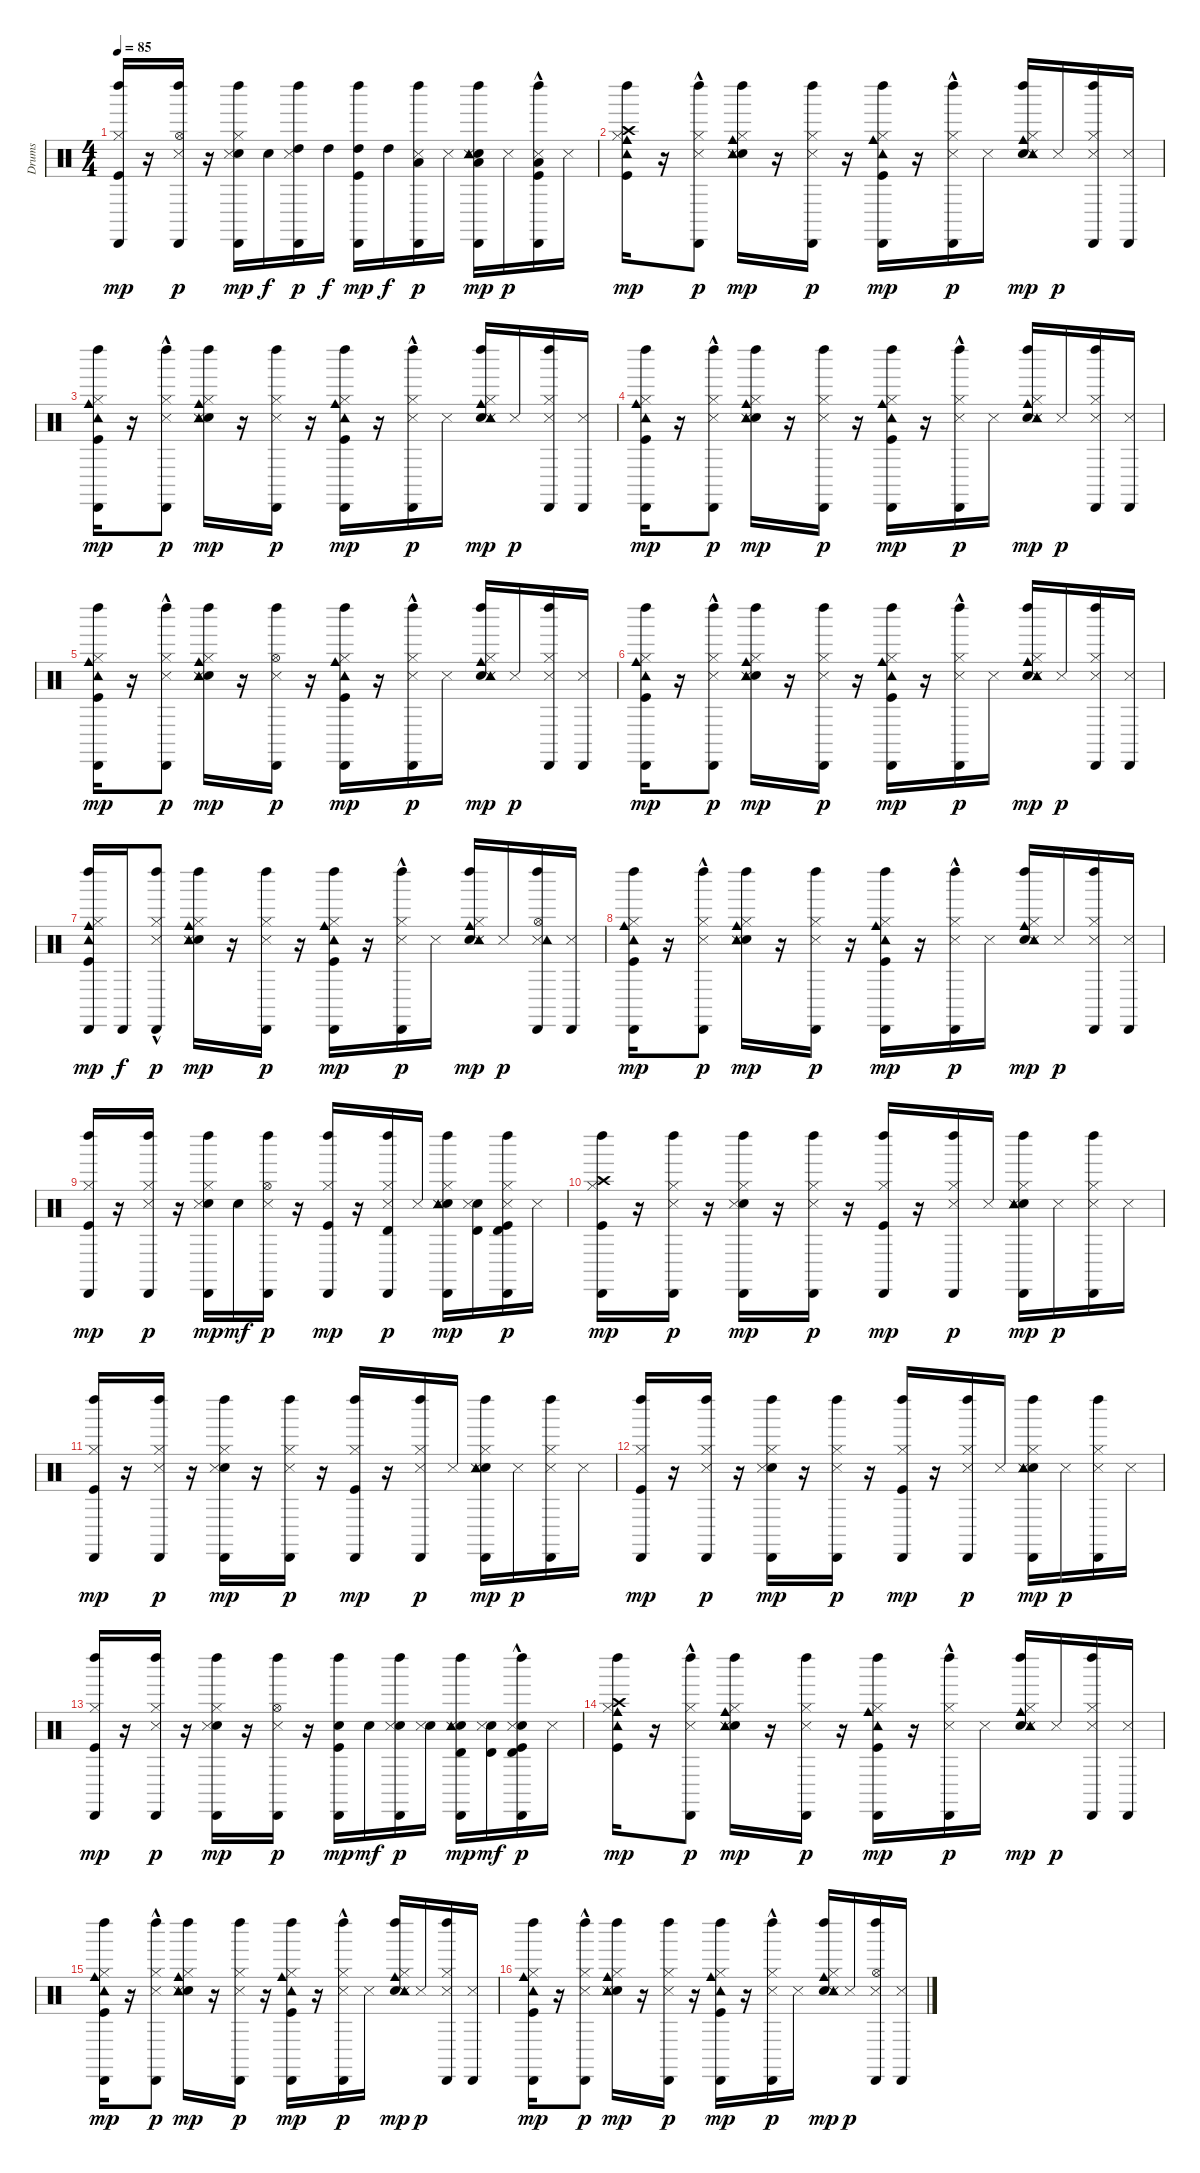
\track ("Drums" "Drums") {instrument percussion}
\staff {score}
\articulation defaults
\ts (4 4)
\tempo 85
\clef neutral
\ks c
("Kick (hit)" "Hi-Hat (closed)" "Left Maraca (hit)" "Cabasa (hit)").16{dy mp} r.16 ("Hi-Hat (open)" "Snare (side stick) 3" "Left Maraca (hit)" "Cabasa (hit)").16{dy p} r.16 ("Snare (hit) 2" "Hi-Hat (closed)" "Snare (side stick) 3" "Left Maraca (hit)" "Cabasa (hit)").16{dy mp} "Snare (hit) 2".16{dy f} ("Snare (side stick) 3" "High Tom (hit)" "Left Maraca (hit)" "Cabasa (hit)").16{dy p} "High Tom (hit)".16{dy f} ("Kick (hit)" "High Tom (hit)" "Left Maraca (hit)" "Cabasa (hit)").16{dy mp} "High Tom (hit)".16{dy f} ("Snare (side stick) 3" "Low Tom (hit)" "Left Maraca (hit)" "Cabasa (hit)").16{dy p} "Snare (side stick) 3".16 ("Snare (hit) 2" "Snare (side stick) 3" "Low Tom (hit)" "Tambourine (hit)" "Left Maraca (hit)" "Cabasa (hit)").16{dy mp} "Snare (side stick) 3".16{dy p} ("Kick (hit)" "Snare (side stick) 3" "Low Floor Tom (hit)" "Left Maraca (hit)" "Cabasa (hit)"{hac}).16 "Snare (side stick) 3".16 |
("Kick (hit)" "Hi-Hat (closed)" "Cowbell medium (hit)" "Crash high (hit)" "Tambourine (hit)" "Left Maraca (hit)").16{dy mp} r.16 ("Hi-Hat (closed)" "Snare (side stick) 3" "Left Maraca (hit)" "Cabasa (hit)"{hac}).8{dy p} ("Snare (hit) 2" "Hi-Hat (closed)" "Snare (side stick) 3" "Cowbell medium (hit)" "Tambourine (hit)" "Left Maraca (hit)").16{dy mp} r.16 ("Hi-Hat (closed)" "Snare (side stick) 3" "Left Maraca (hit)" "Cabasa (hit)").16{dy p} r.16 ("Kick (hit)" "Hi-Hat (closed)" "Cowbell medium (hit)" "Tambourine (hit)" "Left Maraca (hit)" "Cabasa (hit)").16{dy mp} r.16 ("Hi-Hat (closed)" "Snare (side stick) 3" "Left Maraca (hit)" "Cabasa (hit)"{hac}).16{dy p} "Snare (side stick) 3".16 ("Snare (hit) 2" "Hi-Hat (closed)" "Snare (side stick) 3" "Cowbell medium (hit)" "Tambourine (hit)" "Left Maraca (hit)").16{dy mp} "Snare (side stick) 3".16{dy p} ("Hi-Hat (closed)" "Snare (side stick) 3" "Left Maraca (hit)" "Cabasa (hit)").16 ("Snare (side stick) 3" "Cabasa (hit)").16 |
("Kick (hit)" "Hi-Hat (closed)" "Cowbell medium (hit)" "Tambourine (hit)" "Left Maraca (hit)" "Cabasa (hit)").16{dy mp} r.16 ("Hi-Hat (closed)" "Snare (side stick) 3" "Left Maraca (hit)" "Cabasa (hit)"{hac}).8{dy p} ("Snare (hit) 2" "Hi-Hat (closed)" "Snare (side stick) 3" "Cowbell medium (hit)" "Tambourine (hit)" "Left Maraca (hit)").16{dy mp} r.16 ("Hi-Hat (closed)" "Snare (side stick) 3" "Left Maraca (hit)" "Cabasa (hit)").16{dy p} r.16 ("Kick (hit)" "Hi-Hat (closed)" "Cowbell medium (hit)" "Tambourine (hit)" "Left Maraca (hit)" "Cabasa (hit)").16{dy mp} r.16 ("Hi-Hat (closed)" "Snare (side stick) 3" "Left Maraca (hit)" "Cabasa (hit)"{hac}).16{dy p} "Snare (side stick) 3".16 ("Snare (hit) 2" "Hi-Hat (closed)" "Snare (side stick) 3" "Cowbell medium (hit)" "Tambourine (hit)" "Left Maraca (hit)").16{dy mp} "Snare (side stick) 3".16{dy p} ("Hi-Hat (closed)" "Snare (side stick) 3" "Left Maraca (hit)" "Cabasa (hit)").16 ("Snare (side stick) 3" "Cabasa (hit)").16 |
("Kick (hit)" "Hi-Hat (closed)" "Cowbell medium (hit)" "Tambourine (hit)" "Left Maraca (hit)" "Cabasa (hit)").16{dy mp} r.16 ("Hi-Hat (closed)" "Snare (side stick) 3" "Left Maraca (hit)" "Cabasa (hit)"{hac}).8{dy p} ("Snare (hit) 2" "Hi-Hat (closed)" "Snare (side stick) 3" "Cowbell medium (hit)" "Tambourine (hit)" "Left Maraca (hit)").16{dy mp} r.16 ("Hi-Hat (closed)" "Snare (side stick) 3" "Left Maraca (hit)" "Cabasa (hit)").16{dy p} r.16 ("Kick (hit)" "Hi-Hat (closed)" "Cowbell medium (hit)" "Tambourine (hit)" "Left Maraca (hit)" "Cabasa (hit)").16{dy mp} r.16 ("Hi-Hat (closed)" "Snare (side stick) 3" "Left Maraca (hit)" "Cabasa (hit)"{hac}).16{dy p} "Snare (side stick) 3".16 ("Snare (hit) 2" "Hi-Hat (closed)" "Snare (side stick) 3" "Cowbell medium (hit)" "Tambourine (hit)" "Left Maraca (hit)").16{dy mp} "Snare (side stick) 3".16{dy p} ("Hi-Hat (closed)" "Snare (side stick) 3" "Left Maraca (hit)" "Cabasa (hit)").16 ("Snare (side stick) 3" "Cabasa (hit)").16 |
("Kick (hit)" "Hi-Hat (closed)" "Cowbell medium (hit)" "Tambourine (hit)" "Left Maraca (hit)" "Cabasa (hit)").16{dy mp} r.16 ("Hi-Hat (closed)" "Snare (side stick) 3" "Left Maraca (hit)" "Cabasa (hit)"{hac}).8{dy p} ("Snare (hit) 2" "Hi-Hat (closed)" "Snare (side stick) 3" "Cowbell medium (hit)" "Tambourine (hit)" "Left Maraca (hit)").16{dy mp} r.16 ("Hi-Hat (open)" "Snare (side stick) 3" "Left Maraca (hit)" "Cabasa (hit)").16{dy p} r.16 ("Kick (hit)" "Hi-Hat (closed)" "Cowbell medium (hit)" "Tambourine (hit)" "Left Maraca (hit)" "Cabasa (hit)").16{dy mp} r.16 ("Hi-Hat (closed)" "Snare (side stick) 3" "Left Maraca (hit)" "Cabasa (hit)"{hac}).16{dy p} "Snare (side stick) 3".16 ("Snare (hit) 2" "Hi-Hat (closed)" "Snare (side stick) 3" "Cowbell medium (hit)" "Tambourine (hit)" "Left Maraca (hit)").16{dy mp} "Snare (side stick) 3".16{dy p} ("Hi-Hat (closed)" "Snare (side stick) 3" "Left Maraca (hit)" "Cabasa (hit)").16 ("Snare (side stick) 3" "Cabasa (hit)").16 |
("Kick (hit)" "Hi-Hat (closed)" "Cowbell medium (hit)" "Tambourine (hit)" "Left Maraca (hit)" "Cabasa (hit)").16{dy mp} r.16 ("Hi-Hat (closed)" "Snare (side stick) 3" "Left Maraca (hit)" "Cabasa (hit)"{hac}).8{dy p} ("Snare (hit) 2" "Hi-Hat (closed)" "Snare (side stick) 3" "Cowbell medium (hit)" "Tambourine (hit)" "Left Maraca (hit)").16{dy mp} r.16 ("Hi-Hat (closed)" "Snare (side stick) 3" "Left Maraca (hit)" "Cabasa (hit)").16{dy p} r.16 ("Kick (hit)" "Hi-Hat (closed)" "Cowbell medium (hit)" "Tambourine (hit)" "Left Maraca (hit)" "Cabasa (hit)").16{dy mp} r.16 ("Hi-Hat (closed)" "Snare (side stick) 3" "Left Maraca (hit)" "Cabasa (hit)"{hac}).16{dy p} "Snare (side stick) 3".16 ("Snare (hit) 2" "Hi-Hat (closed)" "Snare (side stick) 3" "Cowbell medium (hit)" "Tambourine (hit)" "Left Maraca (hit)").16{dy mp} "Snare (side stick) 3".16{dy p} ("Hi-Hat (closed)" "Snare (side stick) 3" "Left Maraca (hit)" "Cabasa (hit)").16 ("Snare (side stick) 3" "Cabasa (hit)").16 |
("Kick (hit)" "Hi-Hat (closed)" "Cowbell medium (hit)" "Tambourine (hit)" "Left Maraca (hit)" "Cabasa (hit)").16{dy mp} "Cabasa (hit)".16{dy f} ("Hi-Hat (closed)" "Snare (side stick) 3" "Left Maraca (hit)" "Cabasa (hit)"{hac}).8{dy p} ("Snare (hit) 2" "Hi-Hat (closed)" "Snare (side stick) 3" "Cowbell medium (hit)" "Tambourine (hit)" "Left Maraca (hit)").16{dy mp} r.16 ("Hi-Hat (closed)" "Snare (side stick) 3" "Left Maraca (hit)" "Cabasa (hit)").16{dy p} r.16 ("Kick (hit)" "Hi-Hat (closed)" "Cowbell medium (hit)" "Tambourine (hit)" "Left Maraca (hit)" "Cabasa (hit)").16{dy mp} r.16 ("Hi-Hat (closed)" "Snare (side stick) 3" "Left Maraca (hit)" "Cabasa (hit)"{hac}).16{dy p} "Snare (side stick) 3".16 ("Snare (hit) 2" "Hi-Hat (closed)" "Snare (side stick) 3" "Cowbell medium (hit)" "Tambourine (hit)" "Left Maraca (hit)").16{dy mp} "Snare (side stick) 3".16{dy p} ("Hi-Hat (open)" "Snare (side stick) 3" "Tambourine (hit)" "Left Maraca (hit)" "Cabasa (hit)").16 ("Snare (side stick) 3" "Cabasa (hit)").16 |
("Kick (hit)" "Hi-Hat (closed)" "Cowbell medium (hit)" "Tambourine (hit)" "Left Maraca (hit)" "Cabasa (hit)").16{dy mp} r.16 ("Hi-Hat (closed)" "Snare (side stick) 3" "Left Maraca (hit)" "Cabasa (hit)"{hac}).8{dy p} ("Snare (hit) 2" "Hi-Hat (closed)" "Snare (side stick) 3" "Cowbell medium (hit)" "Tambourine (hit)" "Left Maraca (hit)").16{dy mp} r.16 ("Hi-Hat (closed)" "Snare (side stick) 3" "Left Maraca (hit)" "Cabasa (hit)").16{dy p} r.16 ("Kick (hit)" "Hi-Hat (closed)" "Cowbell medium (hit)" "Tambourine (hit)" "Left Maraca (hit)" "Cabasa (hit)").16{dy mp} r.16 ("Hi-Hat (closed)" "Snare (side stick) 3" "Left Maraca (hit)" "Cabasa (hit)"{hac}).16{dy p} "Snare (side stick) 3".16 ("Snare (hit) 2" "Hi-Hat (closed)" "Snare (side stick) 3" "Cowbell medium (hit)" "Tambourine (hit)" "Left Maraca (hit)").16{dy mp} "Snare (side stick) 3".16{dy p} ("Hi-Hat (closed)" "Snare (side stick) 3" "Left Maraca (hit)" "Cabasa (hit)").16 ("Snare (side stick) 3" "Cabasa (hit)").16 |
("Kick (hit)" "Hi-Hat (closed)" "Left Maraca (hit)" "Cabasa (hit)").16{dy mp} r.16 ("Hi-Hat (closed)" "Snare (side stick) 3" "Left Maraca (hit)" "Cabasa (hit)").16{dy p} r.16 ("Snare (hit) 2" "Hi-Hat (closed)" "Snare (side stick) 3" "Left Maraca (hit)" "Cabasa (hit)").16{dy mp} "Snare (hit) 2".16{dy mf} ("Hi-Hat (open)" "Snare (side stick) 3" "Left Maraca (hit)" "Cabasa (hit)").16{dy p} r.16 ("Kick (hit)" "Hi-Hat (closed)" "Left Maraca (hit)" "Cabasa (hit)").16{dy mp} r.16 ("Hi-Hat (closed)" "Snare (side stick) 3" "Timbale high (hit)" "Left Maraca (hit)" "Cabasa (hit)").16{dy p} "Snare (side stick) 3".16 ("Snare (hit) 2" "Hi-Hat (closed)" "Snare (side stick) 3" "Tambourine (hit)" "Left Maraca (hit)" "Cabasa (hit)").16{dy mp} ("Snare (hit) 2" "Snare (side stick) 3" "Timbale high (hit)").16 ("Kick (hit)" "Hi-Hat (closed)" "Snare (side stick) 3" "Timbale high (hit)" "Left Maraca (hit)" "Cabasa (hit)").16{dy p} "Snare (side stick) 3".16 |
("Kick (hit)" "Hi-Hat (closed)" "Crash high (hit)" "Left Maraca (hit)" "Cabasa (hit)").16{dy mp} r.16 ("Hi-Hat (closed)" "Snare (side stick) 3" "Left Maraca (hit)" "Cabasa (hit)").16{dy p} r.16 ("Snare (hit) 2" "Hi-Hat (closed)" "Snare (side stick) 3" "Left Maraca (hit)" "Cabasa (hit)").16{dy mp} r.16 ("Hi-Hat (closed)" "Snare (side stick) 3" "Left Maraca (hit)" "Cabasa (hit)").16{dy p} r.16 ("Kick (hit)" "Hi-Hat (closed)" "Left Maraca (hit)" "Cabasa (hit)").16{dy mp} r.16 ("Hi-Hat (closed)" "Snare (side stick) 3" "Left Maraca (hit)" "Cabasa (hit)").16{dy p} "Snare (side stick) 3".16 ("Snare (hit) 2" "Hi-Hat (closed)" "Snare (side stick) 3" "Tambourine (hit)" "Left Maraca (hit)" "Cabasa (hit)").16{dy mp} "Snare (side stick) 3".16{dy p} ("Hi-Hat (closed)" "Snare (side stick) 3" "Left Maraca (hit)" "Cabasa (hit)").16 "Snare (side stick) 3".16 |
("Kick (hit)" "Hi-Hat (closed)" "Left Maraca (hit)" "Cabasa (hit)").16{dy mp} r.16 ("Hi-Hat (closed)" "Snare (side stick) 3" "Left Maraca (hit)" "Cabasa (hit)").16{dy p} r.16 ("Snare (hit) 2" "Hi-Hat (closed)" "Snare (side stick) 3" "Left Maraca (hit)" "Cabasa (hit)").16{dy mp} r.16 ("Hi-Hat (closed)" "Snare (side stick) 3" "Left Maraca (hit)" "Cabasa (hit)").16{dy p} r.16 ("Kick (hit)" "Hi-Hat (closed)" "Left Maraca (hit)" "Cabasa (hit)").16{dy mp} r.16 ("Hi-Hat (closed)" "Snare (side stick) 3" "Left Maraca (hit)" "Cabasa (hit)").16{dy p} "Snare (side stick) 3".16 ("Snare (hit) 2" "Hi-Hat (closed)" "Snare (side stick) 3" "Tambourine (hit)" "Left Maraca (hit)" "Cabasa (hit)").16{dy mp} "Snare (side stick) 3".16{dy p} ("Hi-Hat (closed)" "Snare (side stick) 3" "Left Maraca (hit)" "Cabasa (hit)").16 "Snare (side stick) 3".16 |
("Kick (hit)" "Hi-Hat (closed)" "Left Maraca (hit)" "Cabasa (hit)").16{dy mp} r.16 ("Hi-Hat (closed)" "Snare (side stick) 3" "Left Maraca (hit)" "Cabasa (hit)").16{dy p} r.16 ("Snare (hit) 2" "Hi-Hat (closed)" "Snare (side stick) 3" "Left Maraca (hit)" "Cabasa (hit)").16{dy mp} r.16 ("Hi-Hat (closed)" "Snare (side stick) 3" "Left Maraca (hit)" "Cabasa (hit)").16{dy p} r.16 ("Kick (hit)" "Hi-Hat (closed)" "Left Maraca (hit)" "Cabasa (hit)").16{dy mp} r.16 ("Hi-Hat (closed)" "Snare (side stick) 3" "Left Maraca (hit)" "Cabasa (hit)").16{dy p} "Snare (side stick) 3".16 ("Snare (hit) 2" "Hi-Hat (closed)" "Snare (side stick) 3" "Tambourine (hit)" "Left Maraca (hit)" "Cabasa (hit)").16{dy mp} "Snare (side stick) 3".16{dy p} ("Hi-Hat (closed)" "Snare (side stick) 3" "Left Maraca (hit)" "Cabasa (hit)").16 "Snare (side stick) 3".16 |
("Kick (hit)" "Hi-Hat (closed)" "Left Maraca (hit)" "Cabasa (hit)").16{dy mp} r.16 ("Hi-Hat (closed)" "Snare (side stick) 3" "Left Maraca (hit)" "Cabasa (hit)").16{dy p} r.16 ("Snare (hit) 2" "Hi-Hat (closed)" "Snare (side stick) 3" "Left Maraca (hit)" "Cabasa (hit)").16{dy mp} r.16 ("Hi-Hat (open)" "Snare (side stick) 3" "Left Maraca (hit)" "Cabasa (hit)").16{dy p} r.16 ("Kick (hit)" "Snare (hit) 2" "Left Maraca (hit)" "Cabasa (hit)").16{dy mp} "Snare (hit) 2".16{dy mf} ("Snare (hit) 2" "Snare (side stick) 3" "Left Maraca (hit)" "Cabasa (hit)").16{dy p} ("Snare (hit) 2" "Snare (side stick) 3").16 ("Snare (hit) 2" "Snare (side stick) 3" "Timbale high (hit)" "Tambourine (hit)" "Left Maraca (hit)" "Cabasa (hit)").16{dy mp} ("Snare (hit) 2" "Snare (side stick) 3" "Timbale high (hit)").16{dy mf} ("Kick (hit)" "Snare (hit) 2" "Snare (side stick) 3" "Timbale high (hit)" "Left Maraca (hit)" "Cabasa (hit)"{hac}).16{dy p} "Snare (side stick) 3".16 |
("Kick (hit)" "Hi-Hat (closed)" "Cowbell medium (hit)" "Crash high (hit)" "Tambourine (hit)" "Left Maraca (hit)").16{dy mp} r.16 ("Hi-Hat (closed)" "Snare (side stick) 3" "Left Maraca (hit)" "Cabasa (hit)"{hac}).8{dy p} ("Snare (hit) 2" "Hi-Hat (closed)" "Snare (side stick) 3" "Cowbell medium (hit)" "Tambourine (hit)" "Left Maraca (hit)").16{dy mp} r.16 ("Hi-Hat (closed)" "Snare (side stick) 3" "Left Maraca (hit)" "Cabasa (hit)").16{dy p} r.16 ("Kick (hit)" "Hi-Hat (closed)" "Cowbell medium (hit)" "Tambourine (hit)" "Left Maraca (hit)" "Cabasa (hit)").16{dy mp} r.16 ("Hi-Hat (closed)" "Snare (side stick) 3" "Left Maraca (hit)" "Cabasa (hit)"{hac}).16{dy p} "Snare (side stick) 3".16 ("Snare (hit) 2" "Hi-Hat (closed)" "Snare (side stick) 3" "Cowbell medium (hit)" "Tambourine (hit)" "Left Maraca (hit)").16{dy mp} "Snare (side stick) 3".16{dy p} ("Hi-Hat (closed)" "Snare (side stick) 3" "Left Maraca (hit)" "Cabasa (hit)").16 ("Snare (side stick) 3" "Cabasa (hit)").16 |
("Kick (hit)" "Hi-Hat (closed)" "Cowbell medium (hit)" "Tambourine (hit)" "Left Maraca (hit)" "Cabasa (hit)").16{dy mp} r.16 ("Hi-Hat (closed)" "Snare (side stick) 3" "Left Maraca (hit)" "Cabasa (hit)"{hac}).8{dy p} ("Snare (hit) 2" "Hi-Hat (closed)" "Snare (side stick) 3" "Cowbell medium (hit)" "Tambourine (hit)" "Left Maraca (hit)").16{dy mp} r.16 ("Hi-Hat (closed)" "Snare (side stick) 3" "Left Maraca (hit)" "Cabasa (hit)").16{dy p} r.16 ("Kick (hit)" "Hi-Hat (closed)" "Cowbell medium (hit)" "Tambourine (hit)" "Left Maraca (hit)" "Cabasa (hit)").16{dy mp} r.16 ("Hi-Hat (closed)" "Snare (side stick) 3" "Left Maraca (hit)" "Cabasa (hit)"{hac}).16{dy p} "Snare (side stick) 3".16 ("Snare (hit) 2" "Hi-Hat (closed)" "Snare (side stick) 3" "Cowbell medium (hit)" "Tambourine (hit)" "Left Maraca (hit)").16{dy mp} "Snare (side stick) 3".16{dy p} ("Hi-Hat (closed)" "Snare (side stick) 3" "Left Maraca (hit)" "Cabasa (hit)").16 ("Snare (side stick) 3" "Cabasa (hit)").16 |
("Kick (hit)" "Hi-Hat (closed)" "Cowbell medium (hit)" "Tambourine (hit)" "Left Maraca (hit)" "Cabasa (hit)").16{dy mp} r.16 ("Hi-Hat (closed)" "Snare (side stick) 3" "Left Maraca (hit)" "Cabasa (hit)"{hac}).8{dy p} ("Snare (hit) 2" "Hi-Hat (closed)" "Snare (side stick) 3" "Cowbell medium (hit)" "Tambourine (hit)" "Left Maraca (hit)").16{dy mp} r.16 ("Hi-Hat (closed)" "Snare (side stick) 3" "Left Maraca (hit)" "Cabasa (hit)").16{dy p} r.16 ("Kick (hit)" "Hi-Hat (closed)" "Cowbell medium (hit)" "Tambourine (hit)" "Left Maraca (hit)" "Cabasa (hit)").16{dy mp} r.16 ("Hi-Hat (closed)" "Snare (side stick) 3" "Left Maraca (hit)" "Cabasa (hit)"{hac}).16{dy p} "Snare (side stick) 3".16 ("Snare (hit) 2" "Hi-Hat (closed)" "Snare (side stick) 3" "Cowbell medium (hit)" "Tambourine (hit)" "Left Maraca (hit)").16{dy mp} "Snare (side stick) 3".16{dy p} ("Hi-Hat (open)" "Snare (side stick) 3" "Left Maraca (hit)" "Cabasa (hit)").16 ("Snare (side stick) 3" "Cabasa (hit)").16
